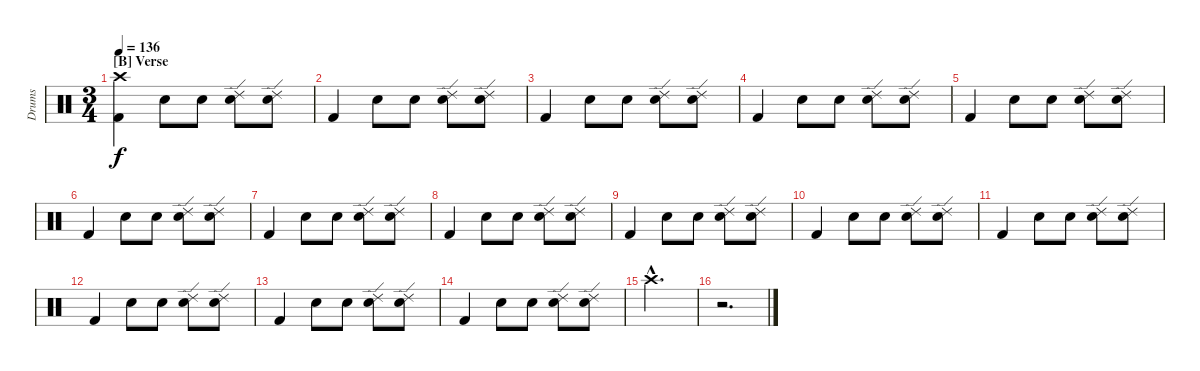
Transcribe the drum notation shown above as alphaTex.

\track ("Drums" "Drums") {instrument percussion}
\staff {score}
\articulation defaults
\ts (3 4)
\section ("" "[B] Verse")
\tempo 136
\clef neutral
\ks aminor
("Crash high (hit)" "Kick (hit) 2").4{dy f} "Snare (hit) 2".8 "Snare (hit) 2".8 ("Ride (edge) 2" "Snare (hit) 2").8 ("Ride (edge) 2" "Snare (hit) 2").8 |
"Kick (hit) 2".4 "Snare (hit) 2".8 "Snare (hit) 2".8 ("Ride (edge) 2" "Snare (hit) 2").8 ("Ride (edge) 2" "Snare (hit) 2").8 |
"Kick (hit) 2".4 "Snare (hit) 2".8 "Snare (hit) 2".8 ("Ride (edge) 2" "Snare (hit) 2").8 ("Ride (edge) 2" "Snare (hit) 2").8 |
"Kick (hit) 2".4 "Snare (hit) 2".8 "Snare (hit) 2".8 ("Ride (edge) 2" "Snare (hit) 2").8 ("Ride (edge) 2" "Snare (hit) 2").8 |
"Kick (hit) 2".4 "Snare (hit) 2".8 "Snare (hit) 2".8 ("Ride (edge) 2" "Snare (hit) 2").8 ("Ride (edge) 2" "Snare (hit) 2").8 |
"Kick (hit) 2".4 "Snare (hit) 2".8 "Snare (hit) 2".8 ("Ride (edge) 2" "Snare (hit) 2").8 ("Ride (edge) 2" "Snare (hit) 2").8 |
"Kick (hit) 2".4 "Snare (hit) 2".8 "Snare (hit) 2".8 ("Ride (edge) 2" "Snare (hit) 2").8 ("Ride (edge) 2" "Snare (hit) 2").8 |
"Kick (hit) 2".4 "Snare (hit) 2".8 "Snare (hit) 2".8 ("Ride (edge) 2" "Snare (hit) 2").8 ("Ride (edge) 2" "Snare (hit) 2").8 |
"Kick (hit) 2".4 "Snare (hit) 2".8 "Snare (hit) 2".8 ("Ride (edge) 2" "Snare (hit) 2").8 ("Ride (edge) 2" "Snare (hit) 2").8 |
"Kick (hit) 2".4 "Snare (hit) 2".8 "Snare (hit) 2".8 ("Ride (edge) 2" "Snare (hit) 2").8 ("Ride (edge) 2" "Snare (hit) 2").8 |
"Kick (hit) 2".4 "Snare (hit) 2".8 "Snare (hit) 2".8 ("Ride (edge) 2" "Snare (hit) 2").8 ("Ride (edge) 2" "Snare (hit) 2").8 |
"Kick (hit) 2".4 "Snare (hit) 2".8 "Snare (hit) 2".8 ("Ride (edge) 2" "Snare (hit) 2").8 ("Ride (edge) 2" "Snare (hit) 2").8 |
"Kick (hit) 2".4 "Snare (hit) 2".8 "Snare (hit) 2".8 ("Ride (edge) 2" "Snare (hit) 2").8 ("Ride (edge) 2" "Snare (hit) 2").8 |
"Kick (hit) 2".4 "Snare (hit) 2".8 "Snare (hit) 2".8 ("Ride (edge) 2" "Snare (hit) 2").8 ("Ride (edge) 2" "Snare (hit) 2").8 |
"Crash high (hit)"{hac}.2{d} |
r.2{d}
